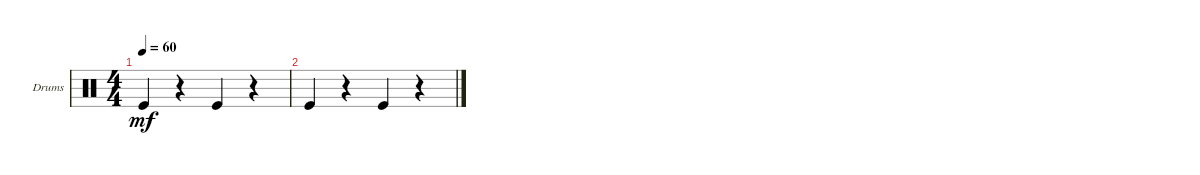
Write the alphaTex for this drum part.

\defaultSystemsLayout 4
\bracketExtendMode groupsimilarinstruments
\firstSystemTrackNameOrientation horizontal
\otherSystemsTrackNameOrientation horizontal
\track ("Drumkit" "Drums") {instrument percussion}
\staff {score}
\articulation defaults
\ts (4 4)
\tempo 60
\clef neutral
\ks c "Kick (hit)".4{dy mf}
r.4 "Kick (hit)".4 r.4 |
"Kick (hit)".4 r.4 "Kick (hit)".4 r.4
